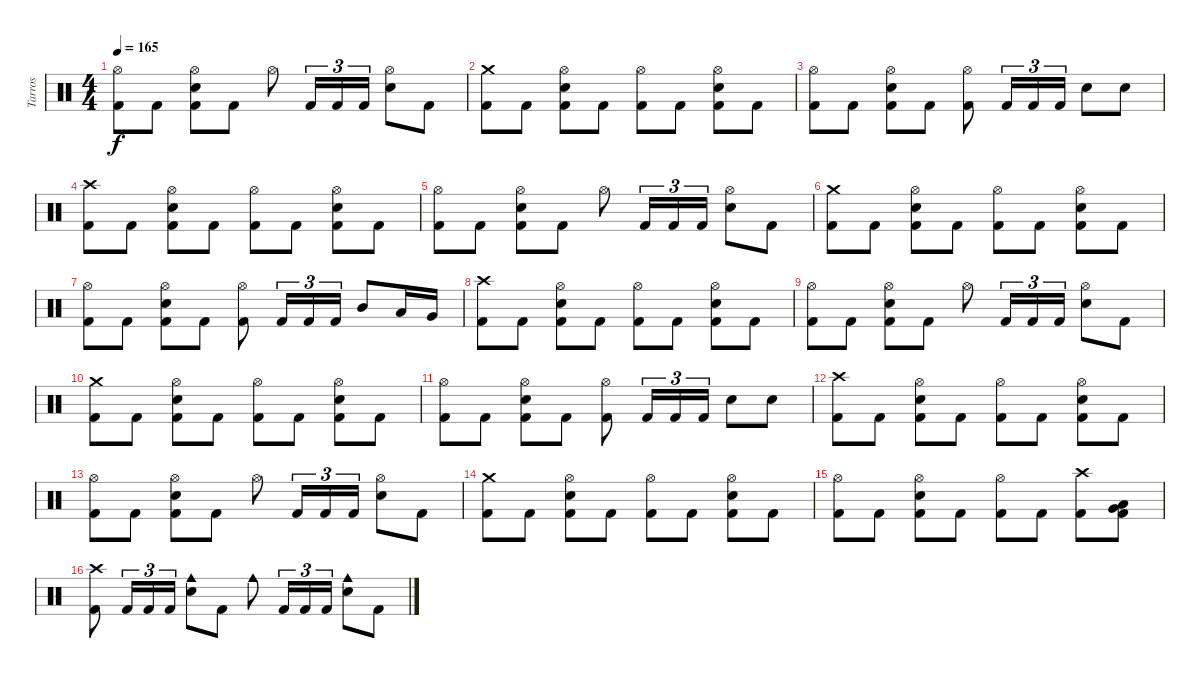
\track ("Tarros" "Tarros") {instrument percussion}
\staff {score}
\articulation defaults
\ts (4 4)
\tempo 165
\clef neutral
\ks c
("Hi-Hat (open)" "Kick (hit) 2").8{dy f} "Kick (hit) 2".8 ("Hi-Hat (open)" "Electric Snare (hit)" "Kick (hit) 2").8 "Kick (hit) 2".8 "Hi-Hat (open)".8 "Kick (hit) 2".16{tu (3 2)} "Kick (hit) 2".16{tu (3 2)} "Kick (hit) 2".16{tu (3 2)} ("Hi-Hat (open)" "Electric Snare (hit)").8 "Kick (hit) 2".8 |
("Crash medium (hit)" "Kick (hit) 2").8 "Kick (hit) 2".8 ("Hi-Hat (open)" "Electric Snare (hit)" "Kick (hit) 2").8 "Kick (hit) 2".8 ("Hi-Hat (open)" "Kick (hit) 2").8 "Kick (hit) 2".8 ("Hi-Hat (open)" "Electric Snare (hit)" "Kick (hit) 2").8 "Kick (hit) 2".8 |
("Hi-Hat (open)" "Kick (hit) 2").8 "Kick (hit) 2".8 ("Hi-Hat (open)" "Electric Snare (hit)" "Kick (hit) 2").8 "Kick (hit) 2".8 ("Hi-Hat (open)" "Kick (hit) 2").8 "Kick (hit) 2".16{tu (3 2)} "Kick (hit) 2".16{tu (3 2)} "Kick (hit) 2".16{tu (3 2)} "Electric Snare (hit)".8 "Electric Snare (hit)".8 |
("Crash high (hit)" "Kick (hit) 2").8 "Kick (hit) 2".8 ("Hi-Hat (open)" "Electric Snare (hit)" "Kick (hit) 2").8 "Kick (hit) 2".8 ("Hi-Hat (open)" "Kick (hit) 2").8 "Kick (hit) 2".8 ("Hi-Hat (open)" "Electric Snare (hit)" "Kick (hit) 2").8 "Kick (hit) 2".8 |
("Hi-Hat (open)" "Kick (hit) 2").8 "Kick (hit) 2".8 ("Hi-Hat (open)" "Electric Snare (hit)" "Kick (hit) 2").8 "Kick (hit) 2".8 "Hi-Hat (open)".8 "Kick (hit) 2".16{tu (3 2)} "Kick (hit) 2".16{tu (3 2)} "Kick (hit) 2".16{tu (3 2)} ("Hi-Hat (open)" "Electric Snare (hit)").8 "Kick (hit) 2".8 |
("Crash medium (hit)" "Kick (hit) 2").8 "Kick (hit) 2".8 ("Hi-Hat (open)" "Electric Snare (hit)" "Kick (hit) 2").8 "Kick (hit) 2".8 ("Hi-Hat (open)" "Kick (hit) 2").8 "Kick (hit) 2".8 ("Hi-Hat (open)" "Electric Snare (hit)" "Kick (hit) 2").8 "Kick (hit) 2".8 |
("Hi-Hat (open)" "Kick (hit) 2").8 "Kick (hit) 2".8 ("Hi-Hat (open)" "Electric Snare (hit)" "Kick (hit) 2").8 "Kick (hit) 2".8 ("Hi-Hat (open)" "Kick (hit) 2").8 "Kick (hit) 2".16{tu (3 2)} "Kick (hit) 2".16{tu (3 2)} "Kick (hit) 2".16{tu (3 2)} "Mid Tom (hit)".8 "Low Tom (hit)".16 "Very Low Tom (hit)".16 |
("Crash high (hit)" "Kick (hit) 2").8 "Kick (hit) 2".8 ("Hi-Hat (open)" "Electric Snare (hit)" "Kick (hit) 2").8 "Kick (hit) 2".8 ("Hi-Hat (open)" "Kick (hit) 2").8 "Kick (hit) 2".8 ("Hi-Hat (open)" "Electric Snare (hit)" "Kick (hit) 2").8 "Kick (hit) 2".8 |
("Hi-Hat (open)" "Kick (hit) 2").8 "Kick (hit) 2".8 ("Hi-Hat (open)" "Electric Snare (hit)" "Kick (hit) 2").8 "Kick (hit) 2".8 "Hi-Hat (open)".8 "Kick (hit) 2".16{tu (3 2)} "Kick (hit) 2".16{tu (3 2)} "Kick (hit) 2".16{tu (3 2)} ("Hi-Hat (open)" "Electric Snare (hit)").8 "Kick (hit) 2".8 |
("Crash medium (hit)" "Kick (hit) 2").8 "Kick (hit) 2".8 ("Hi-Hat (open)" "Electric Snare (hit)" "Kick (hit) 2").8 "Kick (hit) 2".8 ("Hi-Hat (open)" "Kick (hit) 2").8 "Kick (hit) 2".8 ("Hi-Hat (open)" "Electric Snare (hit)" "Kick (hit) 2").8 "Kick (hit) 2".8 |
("Hi-Hat (open)" "Kick (hit) 2").8 "Kick (hit) 2".8 ("Hi-Hat (open)" "Electric Snare (hit)" "Kick (hit) 2").8 "Kick (hit) 2".8 ("Hi-Hat (open)" "Kick (hit) 2").8 "Kick (hit) 2".16{tu (3 2)} "Kick (hit) 2".16{tu (3 2)} "Kick (hit) 2".16{tu (3 2)} "Electric Snare (hit)".8 "Electric Snare (hit)".8 |
("Crash high (hit)" "Kick (hit) 2").8 "Kick (hit) 2".8 ("Hi-Hat (open)" "Electric Snare (hit)" "Kick (hit) 2").8 "Kick (hit) 2".8 ("Hi-Hat (open)" "Kick (hit) 2").8 "Kick (hit) 2".8 ("Hi-Hat (open)" "Electric Snare (hit)" "Kick (hit) 2").8 "Kick (hit) 2".8 |
("Hi-Hat (open)" "Kick (hit) 2").8 "Kick (hit) 2".8 ("Hi-Hat (open)" "Electric Snare (hit)" "Kick (hit) 2").8 "Kick (hit) 2".8 "Hi-Hat (open)".8 "Kick (hit) 2".16{tu (3 2)} "Kick (hit) 2".16{tu (3 2)} "Kick (hit) 2".16{tu (3 2)} ("Hi-Hat (open)" "Electric Snare (hit)").8 "Kick (hit) 2".8 |
("Crash medium (hit)" "Kick (hit) 2").8 "Kick (hit) 2".8 ("Hi-Hat (open)" "Electric Snare (hit)" "Kick (hit) 2").8 "Kick (hit) 2".8 ("Hi-Hat (open)" "Kick (hit) 2").8 "Kick (hit) 2".8 ("Hi-Hat (open)" "Electric Snare (hit)" "Kick (hit) 2").8 "Kick (hit) 2".8 |
("Hi-Hat (open)" "Kick (hit) 2").8 "Kick (hit) 2".8 ("Hi-Hat (open)" "Electric Snare (hit)" "Kick (hit) 2").8 "Kick (hit) 2".8 ("Hi-Hat (open)" "Kick (hit) 2").8 "Kick (hit) 2".8 ("Crash high (hit)" "Kick (hit) 2").8 ("Very Low Tom (hit)" "Low Floor Tom (hit)" "Kick (hit) 2").8 |
("Crash high (hit)" "Kick (hit) 2").8 "Kick (hit) 2".16{tu (3 2)} "Kick (hit) 2".16{tu (3 2)} "Kick (hit) 2".16{tu (3 2)} ("Cowbell medium (hit)" "Electric Snare (hit)").8 "Kick (hit) 2".8 "Cowbell medium (hit)".8 "Kick (hit) 2".16{tu (3 2)} "Kick (hit) 2".16{tu (3 2)} "Kick (hit) 2".16{tu (3 2)} ("Cowbell medium (hit)" "Electric Snare (hit)").8 "Kick (hit) 2".8
